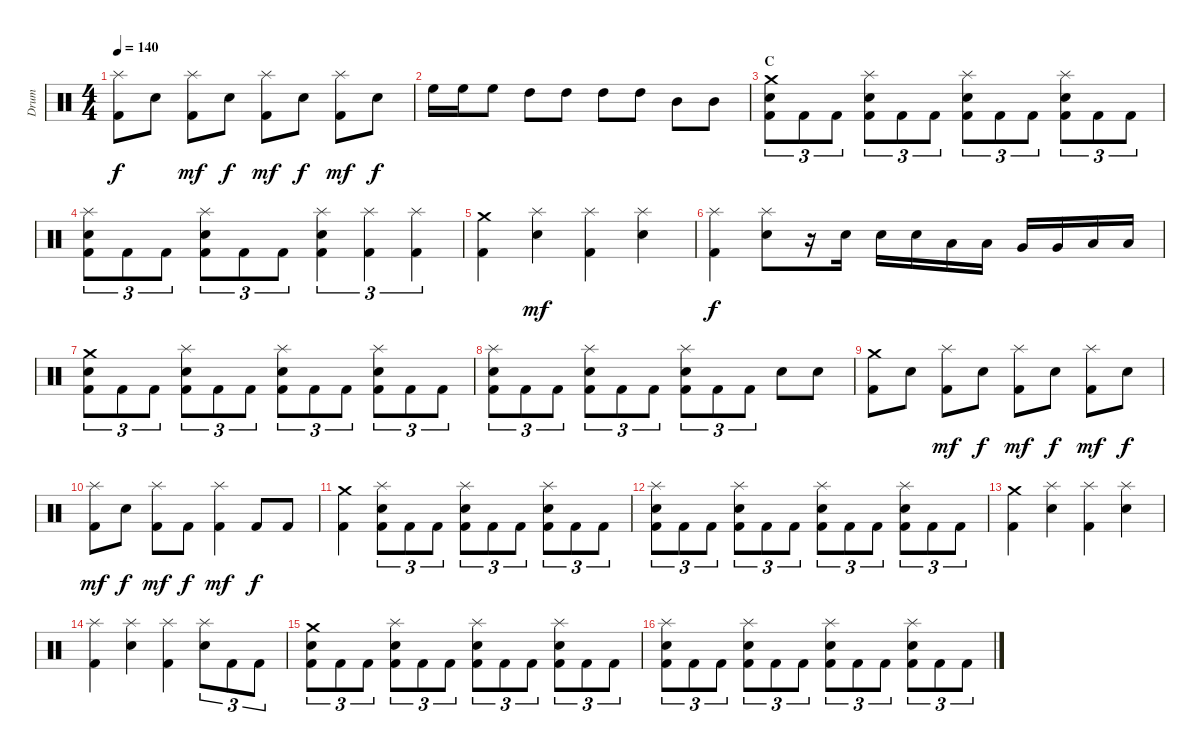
\track ("Drum" "Drum") {instrument percussion}
\staff {score}
\articulation defaults
\ts (4 4)
\tempo 140
\clef neutral
\ks c
("Splash (hit)" "Kick (hit) 2").8{dy f} "Electric Snare (hit)".8 ("Splash (hit)" "Kick (hit) 2").8{dy mf} "Electric Snare (hit)".8{dy f} ("Splash (hit)" "Kick (hit) 2").8{dy mf} "Electric Snare (hit)".8{dy f} ("Splash (hit)" "Kick (hit) 2").8{dy mf} "Electric Snare (hit)".8{dy f} |
"High Floor Tom (hit)".16 "High Floor Tom (hit)".16 "High Floor Tom (hit)".8 "High Tom (hit)".8 "High Tom (hit)".8 "High Tom (hit)".8 "High Tom (hit)".8 "Mid Tom (hit)".8 "Mid Tom (hit)".8 |
\section ("" "C")
("Crash medium (hit)" "Electric Snare (hit)" "Kick (hit) 2").8{tu (3 2)} "Kick (hit) 2".8{tu (3 2)} "Kick (hit) 2".8{tu (3 2)} ("Splash (hit)" "Electric Snare (hit)" "Kick (hit) 2").8{tu (3 2)} "Kick (hit) 2".8{tu (3 2)} "Kick (hit) 2".8{tu (3 2)} ("Splash (hit)" "Electric Snare (hit)" "Kick (hit) 2").8{tu (3 2)} "Kick (hit) 2".8{tu (3 2)} "Kick (hit) 2".8{tu (3 2)} ("Splash (hit)" "Electric Snare (hit)" "Kick (hit) 2").8{tu (3 2)} "Kick (hit) 2".8{tu (3 2)} "Kick (hit) 2".8{tu (3 2)} |
("Splash (hit)" "Electric Snare (hit)" "Kick (hit) 2").8{tu (3 2)} "Kick (hit) 2".8{tu (3 2)} "Kick (hit) 2".8{tu (3 2)} ("Splash (hit)" "Electric Snare (hit)" "Kick (hit) 2").8{tu (3 2)} "Kick (hit) 2".8{tu (3 2)} "Kick (hit) 2".8{tu (3 2)} ("Splash (hit)" "Electric Snare (hit)" "Kick (hit) 2").4{tu (3 2)} ("Splash (hit)" "Kick (hit) 2").4{tu (3 2)} ("Splash (hit)" "Kick (hit) 2").4{tu (3 2)} |
("Crash medium (hit)" "Kick (hit) 2").4 ("Splash (hit)" "Electric Snare (hit)").4{dy mf} ("Splash (hit)" "Kick (hit) 2").4 ("Splash (hit)" "Electric Snare (hit)").4 |
("Splash (hit)" "Kick (hit) 2").4{dy f} ("Splash (hit)" "Electric Snare (hit)").8 r.16 "Electric Snare (hit)".16 "Electric Snare (hit)".16 "Electric Snare (hit)".16 "Low Tom (hit)".16 "Low Tom (hit)".16 "Very Low Tom (hit)".16 "Very Low Tom (hit)".16 "Low Floor Tom (hit)".16 "Low Floor Tom (hit)".16 |
("Crash medium (hit)" "Electric Snare (hit)" "Kick (hit) 2").8{tu (3 2)} "Kick (hit) 2".8{tu (3 2)} "Kick (hit) 2".8{tu (3 2)} ("Splash (hit)" "Electric Snare (hit)" "Kick (hit) 2").8{tu (3 2)} "Kick (hit) 2".8{tu (3 2)} "Kick (hit) 2".8{tu (3 2)} ("Splash (hit)" "Electric Snare (hit)" "Kick (hit) 2").8{tu (3 2)} "Kick (hit) 2".8{tu (3 2)} "Kick (hit) 2".8{tu (3 2)} ("Splash (hit)" "Electric Snare (hit)" "Kick (hit) 2").8{tu (3 2)} "Kick (hit) 2".8{tu (3 2)} "Kick (hit) 2".8{tu (3 2)} |
("Splash (hit)" "Electric Snare (hit)" "Kick (hit) 2").8{tu (3 2)} "Kick (hit) 2".8{tu (3 2)} "Kick (hit) 2".8{tu (3 2)} ("Splash (hit)" "Electric Snare (hit)" "Kick (hit) 2").8{tu (3 2)} "Kick (hit) 2".8{tu (3 2)} "Kick (hit) 2".8{tu (3 2)} ("Splash (hit)" "Electric Snare (hit)" "Kick (hit) 2").8{tu (3 2)} "Kick (hit) 2".8{tu (3 2)} "Kick (hit) 2".8{tu (3 2)} "Electric Snare (hit)".8 "Electric Snare (hit)".8 |
("Crash medium (hit)" "Kick (hit) 2").8 "Electric Snare (hit)".8 ("Splash (hit)" "Kick (hit) 2").8{dy mf} "Electric Snare (hit)".8{dy f} ("Splash (hit)" "Kick (hit) 2").8{dy mf} "Electric Snare (hit)".8{dy f} ("Splash (hit)" "Kick (hit) 2").8{dy mf} "Electric Snare (hit)".8{dy f} |
("Splash (hit)" "Kick (hit) 2").8{dy mf} "Electric Snare (hit)".8{dy f} ("Splash (hit)" "Kick (hit) 2").8{dy mf} "Kick (hit) 2".8{dy f} ("Splash (hit)" "Kick (hit) 2").4{dy mf} "Kick (hit) 2".8{dy f} "Kick (hit) 2".8 |
("Crash medium (hit)" "Kick (hit) 2").4 ("Splash (hit)" "Electric Snare (hit)" "Kick (hit) 2").8{tu (3 2)} "Kick (hit) 2".8{tu (3 2)} "Kick (hit) 2".8{tu (3 2)} ("Splash (hit)" "Electric Snare (hit)" "Kick (hit) 2").8{tu (3 2)} "Kick (hit) 2".8{tu (3 2)} "Kick (hit) 2".8{tu (3 2)} ("Splash (hit)" "Electric Snare (hit)" "Kick (hit) 2").8{tu (3 2)} "Kick (hit) 2".8{tu (3 2)} "Kick (hit) 2".8{tu (3 2)} |
("Splash (hit)" "Electric Snare (hit)" "Kick (hit) 2").8{tu (3 2)} "Kick (hit) 2".8{tu (3 2)} "Kick (hit) 2".8{tu (3 2)} ("Splash (hit)" "Electric Snare (hit)" "Kick (hit) 2").8{tu (3 2)} "Kick (hit) 2".8{tu (3 2)} "Kick (hit) 2".8{tu (3 2)} ("Splash (hit)" "Electric Snare (hit)" "Kick (hit) 2").8{tu (3 2)} "Kick (hit) 2".8{tu (3 2)} "Kick (hit) 2".8{tu (3 2)} ("Splash (hit)" "Electric Snare (hit)" "Kick (hit) 2").8{tu (3 2)} "Kick (hit) 2".8{tu (3 2)} "Kick (hit) 2".8{tu (3 2)} |
("Crash medium (hit)" "Kick (hit) 2").4 ("Splash (hit)" "Electric Snare (hit)").4 ("Splash (hit)" "Kick (hit) 2").4 ("Splash (hit)" "Electric Snare (hit)").4 |
("Splash (hit)" "Kick (hit) 2").4 ("Splash (hit)" "Electric Snare (hit)").4 ("Splash (hit)" "Kick (hit) 2").4 ("Splash (hit)" "Electric Snare (hit)").8{tu (3 2)} "Kick (hit) 2".8{tu (3 2)} "Kick (hit) 2".8{tu (3 2)} |
("Crash medium (hit)" "Electric Snare (hit)" "Kick (hit) 2").8{tu (3 2)} "Kick (hit) 2".8{tu (3 2)} "Kick (hit) 2".8{tu (3 2)} ("Splash (hit)" "Electric Snare (hit)" "Kick (hit) 2").8{tu (3 2)} "Kick (hit) 2".8{tu (3 2)} "Kick (hit) 2".8{tu (3 2)} ("Splash (hit)" "Electric Snare (hit)" "Kick (hit) 2").8{tu (3 2)} "Kick (hit) 2".8{tu (3 2)} "Kick (hit) 2".8{tu (3 2)} ("Splash (hit)" "Electric Snare (hit)" "Kick (hit) 2").8{tu (3 2)} "Kick (hit) 2".8{tu (3 2)} "Kick (hit) 2".8{tu (3 2)} |
("Splash (hit)" "Electric Snare (hit)" "Kick (hit) 2").8{tu (3 2)} "Kick (hit) 2".8{tu (3 2)} "Kick (hit) 2".8{tu (3 2)} ("Splash (hit)" "Electric Snare (hit)" "Kick (hit) 2").8{tu (3 2)} "Kick (hit) 2".8{tu (3 2)} "Kick (hit) 2".8{tu (3 2)} ("Splash (hit)" "Electric Snare (hit)" "Kick (hit) 2").8{tu (3 2)} "Kick (hit) 2".8{tu (3 2)} "Kick (hit) 2".8{tu (3 2)} ("Splash (hit)" "Electric Snare (hit)" "Kick (hit) 2").8{tu (3 2)} "Kick (hit) 2".8{tu (3 2)} "Kick (hit) 2".8{tu (3 2)}
